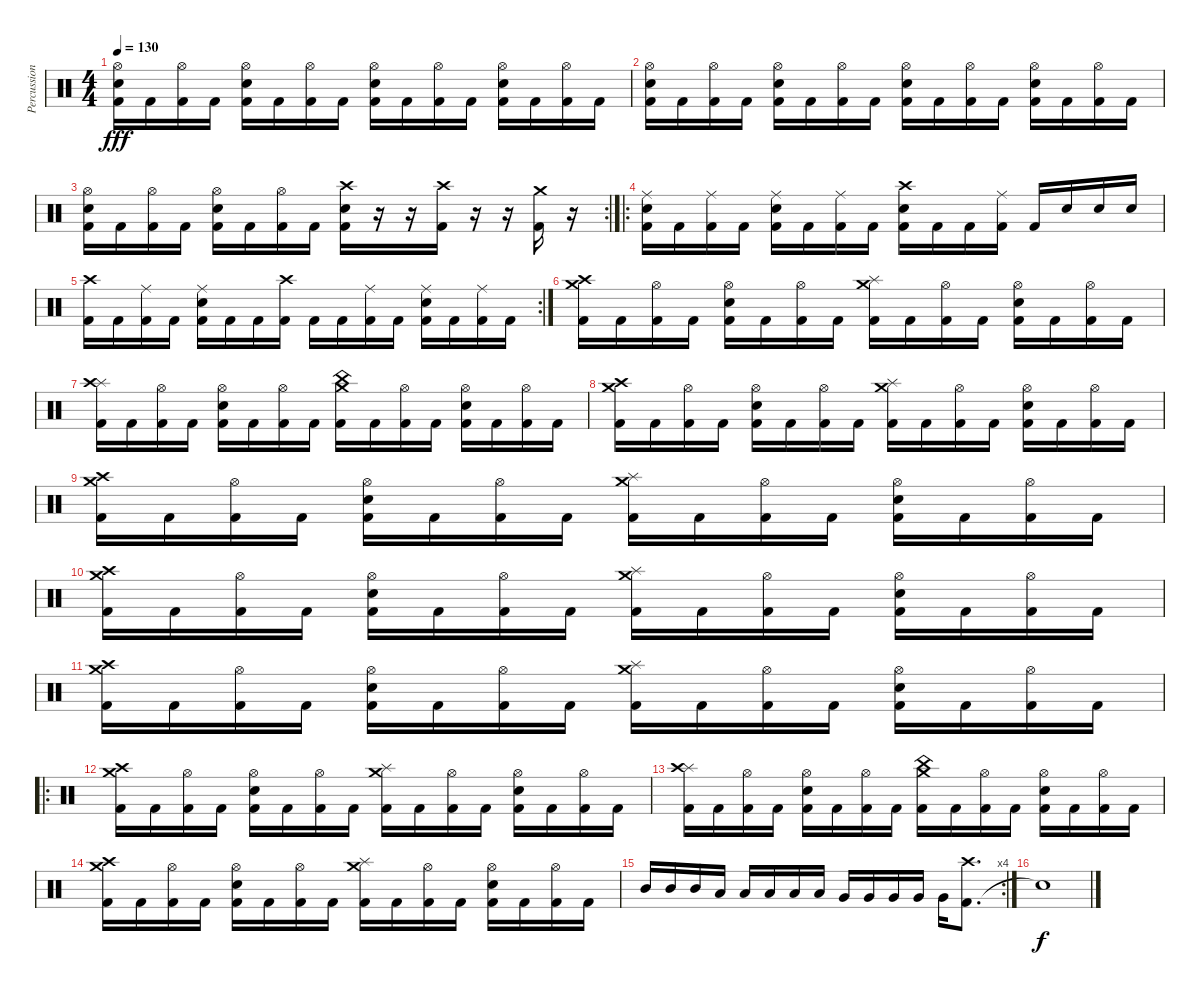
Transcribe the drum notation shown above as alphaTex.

\track ("Percussion" "Percussion") {instrument percussion}
\staff {score}
\articulation defaults
\ts (4 4)
\tempo 130
\clef neutral
\ks c
("Kick (hit) 2" "Snare (hit) 2" "Hi-Hat (open)").16{dy fff} "Kick (hit) 2".16 ("Kick (hit) 2" "Hi-Hat (open)").16 "Kick (hit) 2".16 ("Kick (hit) 2" "Snare (hit) 2" "Hi-Hat (open)").16 "Kick (hit) 2".16 ("Kick (hit) 2" "Hi-Hat (open)").16 "Kick (hit) 2".16 ("Kick (hit) 2" "Snare (hit) 2" "Hi-Hat (open)").16 "Kick (hit) 2".16 ("Kick (hit) 2" "Hi-Hat (open)").16 "Kick (hit) 2".16 ("Kick (hit) 2" "Snare (hit) 2" "Hi-Hat (open)").16 "Kick (hit) 2".16 ("Kick (hit) 2" "Hi-Hat (open)").16 "Kick (hit) 2".16 |
("Kick (hit) 2" "Snare (hit) 2" "Hi-Hat (open)").16 "Kick (hit) 2".16 ("Kick (hit) 2" "Hi-Hat (open)").16 "Kick (hit) 2".16 ("Kick (hit) 2" "Snare (hit) 2" "Hi-Hat (open)").16 "Kick (hit) 2".16 ("Kick (hit) 2" "Hi-Hat (open)").16 "Kick (hit) 2".16 ("Kick (hit) 2" "Snare (hit) 2" "Hi-Hat (open)").16 "Kick (hit) 2".16 ("Kick (hit) 2" "Hi-Hat (open)").16 "Kick (hit) 2".16 ("Kick (hit) 2" "Snare (hit) 2" "Hi-Hat (open)").16 "Kick (hit) 2".16 ("Kick (hit) 2" "Hi-Hat (open)").16 "Kick (hit) 2".16 |
\rc 2
("Kick (hit) 2" "Snare (hit) 2" "Hi-Hat (open)").16 "Kick (hit) 2".16 ("Kick (hit) 2" "Hi-Hat (open)").16 "Kick (hit) 2".16 ("Kick (hit) 2" "Snare (hit) 2" "Hi-Hat (open)").16 "Kick (hit) 2".16 ("Kick (hit) 2" "Hi-Hat (open)").16 "Kick (hit) 2".16 ("Kick (hit) 2" "Snare (hit) 2" "Crash high (hit)").16 r.16 r.16 ("Kick (hit) 2" "Crash high (hit)").16 r.16 r.16 ("Kick (hit) 2" "Crash medium (hit)").16 r.16 |
\ro
("Kick (hit) 2" "Snare (hit) 2" "Ride (middle)").16 "Kick (hit) 2".16 ("Kick (hit) 2" "Ride (middle)").16 "Kick (hit) 2".16 ("Kick (hit) 2" "Snare (hit) 2" "Ride (middle)").16 "Kick (hit) 2".16 ("Kick (hit) 2" "Ride (middle)").16 "Kick (hit) 2".16 ("Kick (hit) 2" "Snare (hit) 2" "Crash high (hit)").16 "Kick (hit) 2".16 "Kick (hit) 2".16 ("Kick (hit) 2" "Ride (middle)").16 "Kick (hit) 2".16 "Snare (hit) 2".16 "Snare (hit) 2".16 "Snare (hit) 2".16 |
\rc 2
("Kick (hit) 2" "Crash high (hit)").16 "Kick (hit) 2".16 ("Kick (hit) 2" "Ride (middle)").16 "Kick (hit) 2".16 ("Kick (hit) 2" "Snare (hit) 2" "Ride (middle)").16 "Kick (hit) 2".16 "Kick (hit) 2".16 ("Kick (hit) 2" "Crash high (hit)").16 "Kick (hit) 2".16 "Kick (hit) 2".16 ("Kick (hit) 2" "Ride (middle)").16 "Kick (hit) 2".16 ("Kick (hit) 2" "Snare (hit) 2" "Ride (middle)").16 "Kick (hit) 2".16 ("Kick (hit) 2" "Ride (middle)").16 "Kick (hit) 2".16 |
("Kick (hit) 2" "Crash medium (hit)" "Crash high (hit)").16 "Kick (hit) 2".16 ("Kick (hit) 2" "Hi-Hat (open)").16 "Kick (hit) 2".16 ("Kick (hit) 2" "Snare (hit) 2" "Hi-Hat (open)").16 "Kick (hit) 2".16 ("Kick (hit) 2" "Hi-Hat (open)").16 "Kick (hit) 2".16 ("Kick (hit) 2" "Crash medium (hit)" "Splash (hit)").16 "Kick (hit) 2".16 ("Kick (hit) 2" "Hi-Hat (open)").16 "Kick (hit) 2".16 ("Kick (hit) 2" "Snare (hit) 2" "Hi-Hat (open)").16 "Kick (hit) 2".16 ("Kick (hit) 2" "Hi-Hat (open)").16 "Kick (hit) 2".16 |
("Kick (hit) 2" "Splash (hit)" "Crash high (hit)").16 "Kick (hit) 2".16 ("Kick (hit) 2" "Hi-Hat (open)").16 "Kick (hit) 2".16 ("Kick (hit) 2" "Snare (hit) 2" "Hi-Hat (open)").16 "Kick (hit) 2".16 ("Kick (hit) 2" "Hi-Hat (open)").16 "Kick (hit) 2".16 ("Kick (hit) 2" "Crash medium (hit)" "China (hit)").16 "Kick (hit) 2".16 ("Kick (hit) 2" "Hi-Hat (open)").16 "Kick (hit) 2".16 ("Kick (hit) 2" "Snare (hit) 2" "Hi-Hat (open)").16 "Kick (hit) 2".16 ("Kick (hit) 2" "Hi-Hat (open)").16 "Kick (hit) 2".16 |
("Kick (hit) 2" "Crash medium (hit)" "Crash high (hit)").16 "Kick (hit) 2".16 ("Kick (hit) 2" "Hi-Hat (open)").16 "Kick (hit) 2".16 ("Kick (hit) 2" "Snare (hit) 2" "Hi-Hat (open)").16 "Kick (hit) 2".16 ("Kick (hit) 2" "Hi-Hat (open)").16 "Kick (hit) 2".16 ("Kick (hit) 2" "Crash medium (hit)" "Splash (hit)").16 "Kick (hit) 2".16 ("Kick (hit) 2" "Hi-Hat (open)").16 "Kick (hit) 2".16 ("Kick (hit) 2" "Snare (hit) 2" "Hi-Hat (open)").16 "Kick (hit) 2".16 ("Kick (hit) 2" "Hi-Hat (open)").16 "Kick (hit) 2".16 |
("Kick (hit) 2" "Crash medium (hit)" "Crash high (hit)").16 "Kick (hit) 2".16 ("Kick (hit) 2" "Hi-Hat (open)").16 "Kick (hit) 2".16 ("Kick (hit) 2" "Snare (hit) 2" "Hi-Hat (open)").16 "Kick (hit) 2".16 ("Kick (hit) 2" "Hi-Hat (open)").16 "Kick (hit) 2".16 ("Kick (hit) 2" "Crash medium (hit)" "Splash (hit)").16 "Kick (hit) 2".16 ("Kick (hit) 2" "Hi-Hat (open)").16 "Kick (hit) 2".16 ("Kick (hit) 2" "Snare (hit) 2" "Hi-Hat (open)").16 "Kick (hit) 2".16 ("Kick (hit) 2" "Hi-Hat (open)").16 "Kick (hit) 2".16 |
("Kick (hit) 2" "Crash medium (hit)" "Crash high (hit)").16 "Kick (hit) 2".16 ("Kick (hit) 2" "Hi-Hat (open)").16 "Kick (hit) 2".16 ("Kick (hit) 2" "Snare (hit) 2" "Hi-Hat (open)").16 "Kick (hit) 2".16 ("Kick (hit) 2" "Hi-Hat (open)").16 "Kick (hit) 2".16 ("Kick (hit) 2" "Crash medium (hit)" "Splash (hit)").16 "Kick (hit) 2".16 ("Kick (hit) 2" "Hi-Hat (open)").16 "Kick (hit) 2".16 ("Kick (hit) 2" "Snare (hit) 2" "Hi-Hat (open)").16 "Kick (hit) 2".16 ("Kick (hit) 2" "Hi-Hat (open)").16 "Kick (hit) 2".16 |
("Kick (hit) 2" "Crash medium (hit)" "Crash high (hit)").16 "Kick (hit) 2".16 ("Kick (hit) 2" "Hi-Hat (open)").16 "Kick (hit) 2".16 ("Kick (hit) 2" "Snare (hit) 2" "Hi-Hat (open)").16 "Kick (hit) 2".16 ("Kick (hit) 2" "Hi-Hat (open)").16 "Kick (hit) 2".16 ("Kick (hit) 2" "Crash medium (hit)" "Splash (hit)").16 "Kick (hit) 2".16 ("Kick (hit) 2" "Hi-Hat (open)").16 "Kick (hit) 2".16 ("Kick (hit) 2" "Snare (hit) 2" "Hi-Hat (open)").16 "Kick (hit) 2".16 ("Kick (hit) 2" "Hi-Hat (open)").16 "Kick (hit) 2".16 |
\ro
("Kick (hit) 2" "Crash medium (hit)" "Crash high (hit)").16 "Kick (hit) 2".16 ("Kick (hit) 2" "Hi-Hat (open)").16 "Kick (hit) 2".16 ("Kick (hit) 2" "Snare (hit) 2" "Hi-Hat (open)").16 "Kick (hit) 2".16 ("Kick (hit) 2" "Hi-Hat (open)").16 "Kick (hit) 2".16 ("Kick (hit) 2" "Crash medium (hit)" "Splash (hit)").16 "Kick (hit) 2".16 ("Kick (hit) 2" "Hi-Hat (open)").16 "Kick (hit) 2".16 ("Kick (hit) 2" "Snare (hit) 2" "Hi-Hat (open)").16 "Kick (hit) 2".16 ("Kick (hit) 2" "Hi-Hat (open)").16 "Kick (hit) 2".16 |
("Kick (hit) 2" "Splash (hit)" "Crash high (hit)").16 "Kick (hit) 2".16 ("Kick (hit) 2" "Hi-Hat (open)").16 "Kick (hit) 2".16 ("Kick (hit) 2" "Snare (hit) 2" "Hi-Hat (open)").16 "Kick (hit) 2".16 ("Kick (hit) 2" "Hi-Hat (open)").16 "Kick (hit) 2".16 ("Kick (hit) 2" "Crash medium (hit)" "China (hit)").16 "Kick (hit) 2".16 ("Kick (hit) 2" "Hi-Hat (open)").16 "Kick (hit) 2".16 ("Kick (hit) 2" "Snare (hit) 2" "Hi-Hat (open)").16 "Kick (hit) 2".16 ("Kick (hit) 2" "Hi-Hat (open)").16 "Kick (hit) 2".16 |
("Kick (hit) 2" "Crash medium (hit)" "Crash high (hit)").16 "Kick (hit) 2".16 ("Kick (hit) 2" "Hi-Hat (open)").16 "Kick (hit) 2".16 ("Kick (hit) 2" "Snare (hit) 2" "Hi-Hat (open)").16 "Kick (hit) 2".16 ("Kick (hit) 2" "Hi-Hat (open)").16 "Kick (hit) 2".16 ("Kick (hit) 2" "Crash medium (hit)" "Splash (hit)").16 "Kick (hit) 2".16 ("Kick (hit) 2" "Hi-Hat (open)").16 "Kick (hit) 2".16 ("Kick (hit) 2" "Snare (hit) 2" "Hi-Hat (open)").16 "Kick (hit) 2".16 ("Kick (hit) 2" "Hi-Hat (open)").16 "Kick (hit) 2".16 |
\rc 4 "Mid Tom (hit)".16 "Mid Tom (hit)".16 "Mid Tom (hit)".16 "Low Tom (hit)".16 "Low Tom (hit)".16 "Low Tom (hit)".16 "Low Tom (hit)".16 "Low Tom (hit)".16 "Very Low Tom (hit)".16 "Very Low Tom (hit)".16 "Very Low Tom (hit)".16 "Very Low Tom (hit)".16 "Very Low Tom (hit)".16
("Kick (hit) 2" "Crash high (hit)").8{d} |
"Snare (hit)"{t}.1{dy f}
